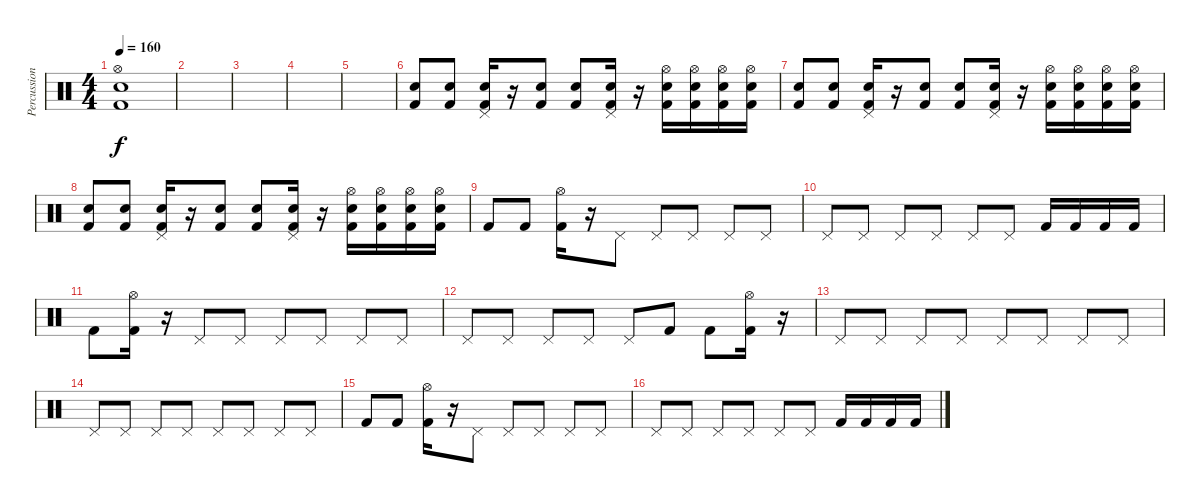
\track ("Percussions" "Percussion") {instrument percussion}
\staff {score}
\articulation defaults
\ts (4 4)
\tempo 160
\clef neutral
\ks c
("Kick (hit) 2" "Snare (hit) 2" "Hi-Hat (open)").1{dy f} |
|
|
|
|
("Kick (hit) 2" "Snare (hit) 2").8 ("Kick (hit) 2" "Snare (hit) 2").8 ("Kick (hit) 2" "Snare (hit) 2" "Pedal Hi-Hat (hit)").16 r.16 ("Kick (hit) 2" "Snare (hit) 2").8 ("Kick (hit) 2" "Snare (hit) 2").8 ("Kick (hit) 2" "Snare (hit) 2" "Pedal Hi-Hat (hit)").16 r.16 ("Kick (hit) 2" "Snare (hit) 2" "Hi-Hat (open)").16 ("Kick (hit) 2" "Snare (hit) 2" "Hi-Hat (open)").16 ("Kick (hit) 2" "Snare (hit) 2" "Hi-Hat (open)").16 ("Kick (hit) 2" "Snare (hit) 2" "Hi-Hat (open)").16 |
("Kick (hit) 2" "Snare (hit) 2").8 ("Kick (hit) 2" "Snare (hit) 2").8 ("Kick (hit) 2" "Snare (hit) 2" "Pedal Hi-Hat (hit)").16 r.16 ("Kick (hit) 2" "Snare (hit) 2").8 ("Kick (hit) 2" "Snare (hit) 2").8 ("Kick (hit) 2" "Snare (hit) 2" "Pedal Hi-Hat (hit)").16 r.16 ("Kick (hit) 2" "Snare (hit) 2" "Hi-Hat (open)").16 ("Kick (hit) 2" "Snare (hit) 2" "Hi-Hat (open)").16 ("Kick (hit) 2" "Snare (hit) 2" "Hi-Hat (open)").16 ("Kick (hit) 2" "Snare (hit) 2" "Hi-Hat (open)").16 |
("Kick (hit) 2" "Snare (hit) 2").8 ("Kick (hit) 2" "Snare (hit) 2").8 ("Kick (hit) 2" "Snare (hit) 2" "Pedal Hi-Hat (hit)").16 r.16 ("Kick (hit) 2" "Snare (hit) 2").8 ("Kick (hit) 2" "Snare (hit) 2").8 ("Kick (hit) 2" "Snare (hit) 2" "Pedal Hi-Hat (hit)").16 r.16 ("Kick (hit) 2" "Snare (hit) 2" "Hi-Hat (open)").16 ("Kick (hit) 2" "Snare (hit) 2" "Hi-Hat (open)").16 ("Kick (hit) 2" "Snare (hit) 2" "Hi-Hat (open)").16 ("Kick (hit) 2" "Snare (hit) 2" "Hi-Hat (open)").16 |
"Kick (hit) 2".8 "Kick (hit) 2".8 ("Hi-Hat (open)" "Kick (hit) 2").16 r.16 "Pedal Hi-Hat (hit)".8 "Pedal Hi-Hat (hit)".8 "Pedal Hi-Hat (hit)".8 "Pedal Hi-Hat (hit)".8 "Pedal Hi-Hat (hit)".8 |
"Pedal Hi-Hat (hit)".8 "Pedal Hi-Hat (hit)".8 "Pedal Hi-Hat (hit)".8 "Pedal Hi-Hat (hit)".8 "Pedal Hi-Hat (hit)".8 "Pedal Hi-Hat (hit)".8 "Kick (hit) 2".16 "Kick (hit) 2".16 "Kick (hit) 2".16 "Kick (hit) 2".16 |
"Kick (hit) 2".8 ("Hi-Hat (open)" "Kick (hit) 2").16 r.16 "Pedal Hi-Hat (hit)".8 "Pedal Hi-Hat (hit)".8 "Pedal Hi-Hat (hit)".8 "Pedal Hi-Hat (hit)".8 "Pedal Hi-Hat (hit)".8 "Pedal Hi-Hat (hit)".8 |
"Pedal Hi-Hat (hit)".8 "Pedal Hi-Hat (hit)".8 "Pedal Hi-Hat (hit)".8 "Pedal Hi-Hat (hit)".8 "Pedal Hi-Hat (hit)".8 "Kick (hit) 2".8 "Kick (hit) 2".8 ("Hi-Hat (open)" "Kick (hit) 2").16 r.16 |
"Pedal Hi-Hat (hit)".8 "Pedal Hi-Hat (hit)".8 "Pedal Hi-Hat (hit)".8 "Pedal Hi-Hat (hit)".8 "Pedal Hi-Hat (hit)".8 "Pedal Hi-Hat (hit)".8 "Pedal Hi-Hat (hit)".8 "Pedal Hi-Hat (hit)".8 |
"Pedal Hi-Hat (hit)".8 "Pedal Hi-Hat (hit)".8 "Pedal Hi-Hat (hit)".8 "Pedal Hi-Hat (hit)".8 "Pedal Hi-Hat (hit)".8 "Pedal Hi-Hat (hit)".8 "Pedal Hi-Hat (hit)".8 "Pedal Hi-Hat (hit)".8 |
"Kick (hit) 2".8 "Kick (hit) 2".8 ("Hi-Hat (open)" "Kick (hit) 2").16 r.16 "Pedal Hi-Hat (hit)".8 "Pedal Hi-Hat (hit)".8 "Pedal Hi-Hat (hit)".8 "Pedal Hi-Hat (hit)".8 "Pedal Hi-Hat (hit)".8 |
"Pedal Hi-Hat (hit)".8 "Pedal Hi-Hat (hit)".8 "Pedal Hi-Hat (hit)".8 "Pedal Hi-Hat (hit)".8 "Pedal Hi-Hat (hit)".8 "Pedal Hi-Hat (hit)".8 "Kick (hit) 2".16 "Kick (hit) 2".16 "Kick (hit) 2".16 "Kick (hit) 2".16
